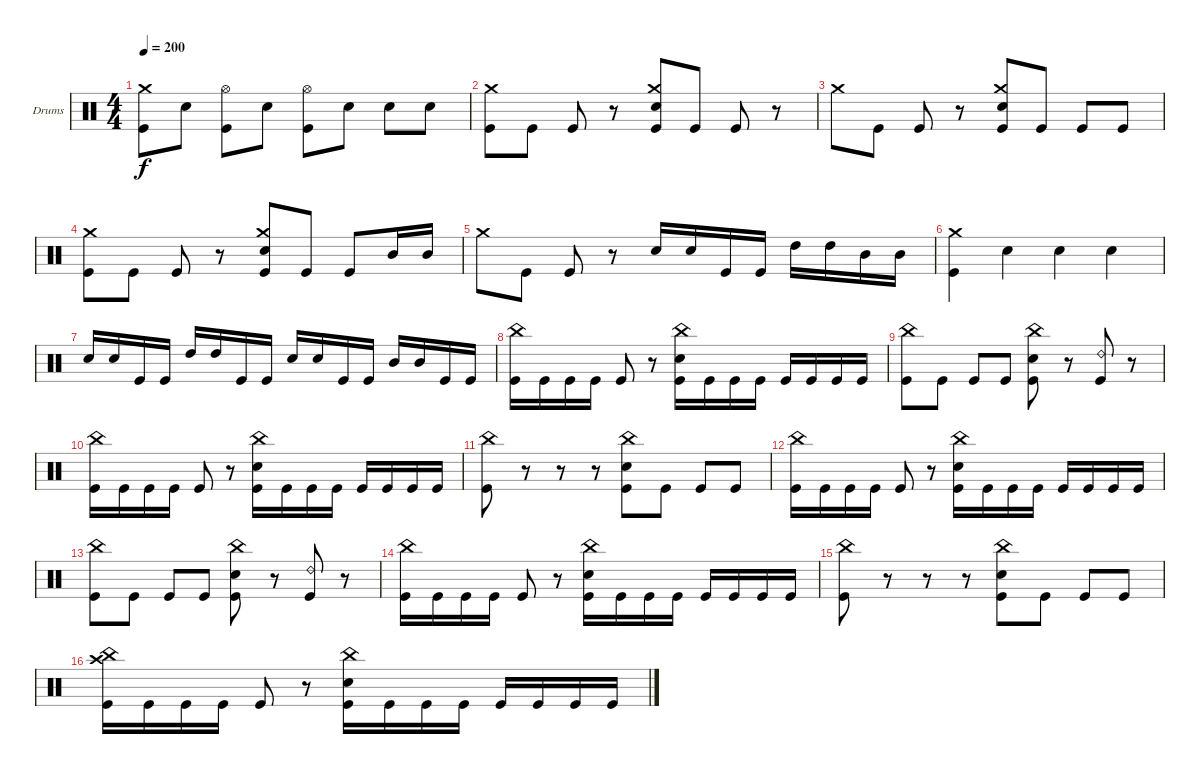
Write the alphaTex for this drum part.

\bracketExtendMode groupsimilarinstruments
\firstSystemTrackNameOrientation horizontal
\otherSystemsTrackNameOrientation horizontal
\track ("Drumkit" "Drums") {instrument percussion}
\staff {score}
\articulation defaults
\ts (4 4)
\tempo 200
\clef neutral
\ks c
("Kick (hit)" "Crash medium (hit)").8{dy f} "Snare (hit) 2".8 ("Kick (hit)" "Hi-Hat (open)").8 "Snare (hit) 2".8 ("Kick (hit)" "Hi-Hat (open)").8 "Snare (hit) 2".8 "Snare (hit) 2".8 "Snare (hit) 2".8 |
("Kick (hit)" "Crash medium (hit)").8 "Kick (hit)".8 "Kick (hit)".8 r.8 ("Kick (hit)" "Crash medium (hit)" "Snare (hit) 2").8 "Kick (hit)".8 "Kick (hit)".8 r.8 |
"Crash medium (hit)".8 "Kick (hit)".8 "Kick (hit)".8 r.8 ("Crash medium (hit)" "Snare (hit) 2" "Kick (hit)").8 "Kick (hit)".8 "Kick (hit)".8 "Kick (hit)".8 |
("Kick (hit)" "Crash medium (hit)").8 "Kick (hit)".8 "Kick (hit)".8 r.8 ("Kick (hit)" "Crash medium (hit)" "Snare (hit) 2").8 "Kick (hit)".8 "Kick (hit)".8 "Mid Tom (hit)".16 "Mid Tom (hit)".16 |
"Crash medium (hit)".8 "Kick (hit)".8 "Kick (hit)".8 r.8 "Snare (hit) 2".16 "Snare (hit) 2".16 "Kick (hit)".16 "Kick (hit)".16 "High Tom (hit)".16 "High Tom (hit)".16 "Mid Tom (hit)".16 "Mid Tom (hit)".16 |
("Kick (hit)" "Crash medium (hit)").4 "Snare (hit) 2".4 "Snare (hit) 2".4 "Snare (hit) 2".4 |
"Snare (hit) 2".16 "Snare (hit) 2".16 "Kick (hit)".16 "Kick (hit)".16 "High Tom (hit)".16 "High Tom (hit)".16 "Kick (hit)".16 "Kick (hit)".16 "Snare (hit) 2".16 "Snare (hit) 2".16 "Kick (hit)".16 "Kick (hit)".16 "Mid Tom (hit)".16 "Mid Tom (hit)".16 "Kick (hit)".16 "Kick (hit)".16 |
("Kick (hit)" "China (hit)").16 "Kick (hit)".16 "Kick (hit)".16 "Kick (hit)".16 "Kick (hit)".8 r.8 ("Kick (hit)" "Snare (hit) 2" "China (hit)").16 "Kick (hit)".16 "Kick (hit)".16 "Kick (hit)".16 "Kick (hit)".16 "Kick (hit)".16 "Kick (hit)".16 "Kick (hit)".16 |
("Kick (hit)" "China (hit)").8 "Kick (hit)".8 "Kick (hit)".8 "Kick (hit)".8 ("Kick (hit)" "Snare (hit) 2" "China (hit)").8 r.8 ("Kick (hit)" "Ride (bell) 2").8 r.8 |
("Kick (hit)" "China (hit)").16 "Kick (hit)".16 "Kick (hit)".16 "Kick (hit)".16 "Kick (hit)".8 r.8 ("Kick (hit)" "Snare (hit) 2" "China (hit)").16 "Kick (hit)".16 "Kick (hit)".16 "Kick (hit)".16 "Kick (hit)".16 "Kick (hit)".16 "Kick (hit)".16 "Kick (hit)".16 |
("Kick (hit)" "China (hit)").8 r.8 r.8 r.8 ("Snare (hit) 2" "Kick (hit)" "China (hit)").8 "Kick (hit)".8 "Kick (hit)".8 "Kick (hit)".8 |
("Kick (hit)" "China (hit)").16 "Kick (hit)".16 "Kick (hit)".16 "Kick (hit)".16 "Kick (hit)".8 r.8 ("Kick (hit)" "Snare (hit) 2" "China (hit)").16 "Kick (hit)".16 "Kick (hit)".16 "Kick (hit)".16 "Kick (hit)".16 "Kick (hit)".16 "Kick (hit)".16 "Kick (hit)".16 |
("Kick (hit)" "China (hit)").8 "Kick (hit)".8 "Kick (hit)".8 "Kick (hit)".8 ("Kick (hit)" "Snare (hit) 2" "China (hit)").8 r.8 ("Kick (hit)" "Ride (bell) 2").8 r.8 |
("Kick (hit)" "China (hit)").16 "Kick (hit)".16 "Kick (hit)".16 "Kick (hit)".16 "Kick (hit)".8 r.8 ("Kick (hit)" "Snare (hit) 2" "China (hit)").16 "Kick (hit)".16 "Kick (hit)".16 "Kick (hit)".16 "Kick (hit)".16 "Kick (hit)".16 "Kick (hit)".16 "Kick (hit)".16 |
("Kick (hit)" "China (hit)").8 r.8 r.8 r.8 ("Snare (hit) 2" "Kick (hit)" "China (hit)").8 "Kick (hit)".8 "Kick (hit)".8 "Kick (hit)".8 |
("Kick (hit)" "China (hit)" "Crash high (hit)").16 "Kick (hit)".16 "Kick (hit)".16 "Kick (hit)".16 "Kick (hit)".8 r.8 ("Kick (hit)" "Snare (hit) 2" "China (hit)").16 "Kick (hit)".16 "Kick (hit)".16 "Kick (hit)".16 "Kick (hit)".16 "Kick (hit)".16 "Kick (hit)".16 "Kick (hit)".16
